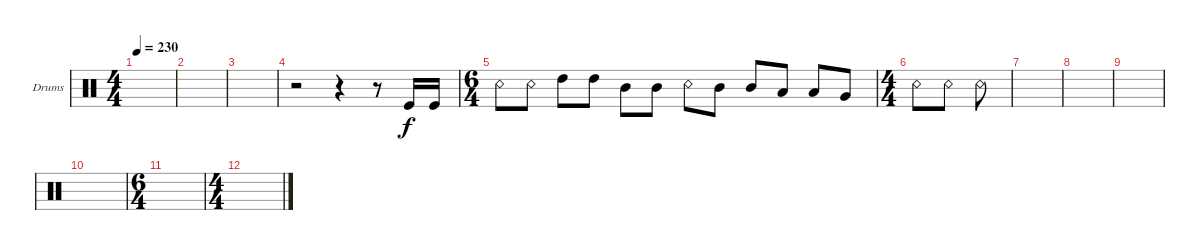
\bracketExtendMode groupsimilarinstruments
\firstSystemTrackNameOrientation horizontal
\otherSystemsTrackNameOrientation horizontal
\track ("Drumkit" "Drums") {instrument percussion}
\staff {score}
\articulation defaults
\ts (4 4)
\tempo 230
\clef neutral
\ks c
|
|
|
r.2 r.4 r.8 "Kick (hit)".16 "Kick (hit)".16 |
\ts (6 4)
"Snare (rim shot)".8 "Snare (rim shot)".8 "High Tom (hit)".8 "High Tom (hit)".8 "Mid Tom (hit)".8 "Mid Tom (hit)".8 "Snare (rim shot)".8 "Mid Tom (hit)".8 "Mid Tom (hit)".8 "Low Tom (hit)".8 "Low Tom (hit)".8 "Very Low Tom (hit)".8 |
\ts (4 4)
"Snare (rim shot)".8 "Snare (rim shot)".8 "Snare (rim shot)".8 |
|
|
|
|
\ts (6 4)
|
\ts (4 4)
